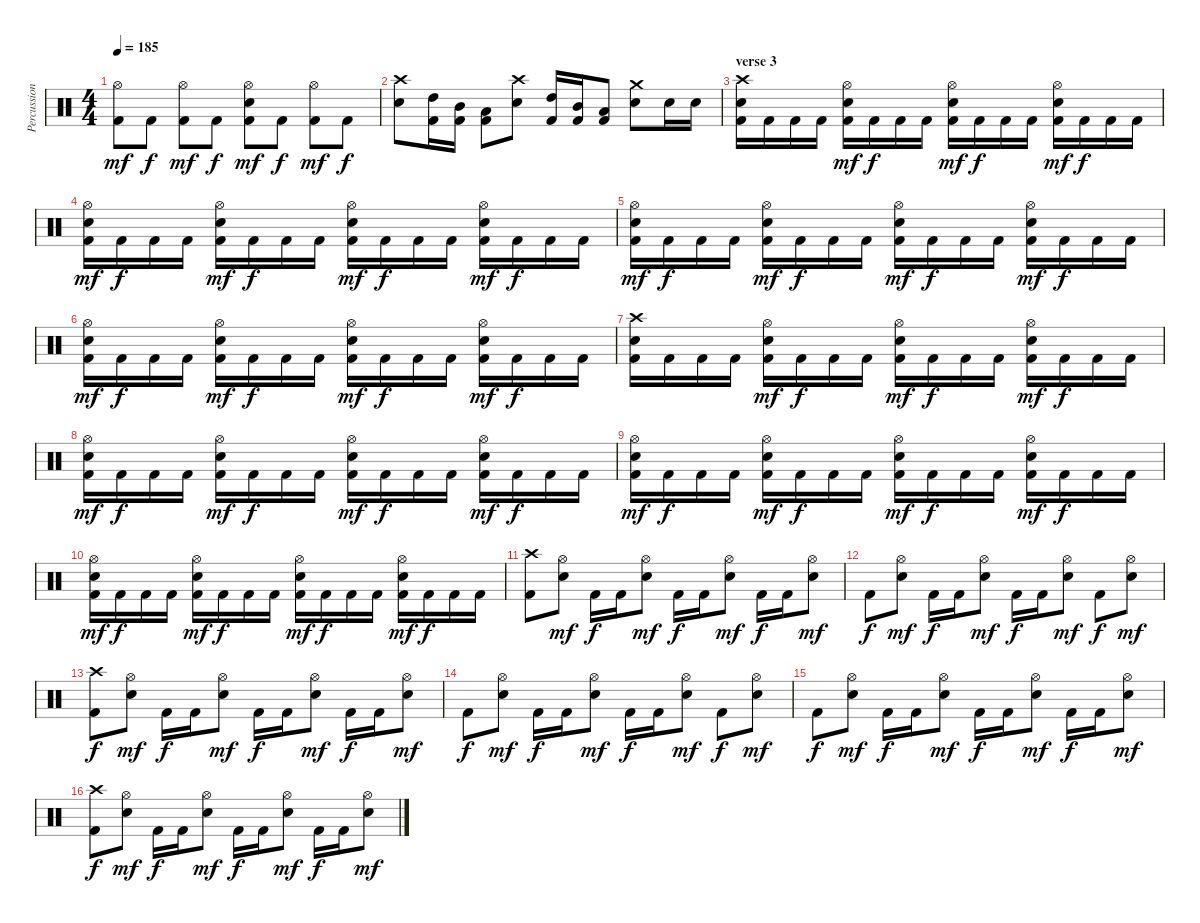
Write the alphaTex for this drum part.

\track ("Percussion" "Percussion") {instrument percussion}
\staff {score}
\articulation defaults
\ts (4 4)
\tempo 185
\clef neutral
\ks c
("Hi-Hat (open)" "Kick (hit) 2").8{dy mf} "Kick (hit) 2".8{dy f} ("Hi-Hat (open)" "Kick (hit) 2").8{dy mf} "Kick (hit) 2".8{dy f} ("Hi-Hat (open)" "Electric Snare (hit)" "Kick (hit) 2").8{dy mf} "Kick (hit) 2".8{dy f} ("Hi-Hat (open)" "Kick (hit) 2").8{dy mf} "Kick (hit) 2".8{dy f} |
("Crash high (hit)" "Electric Snare (hit)").8 ("High Tom (hit)" "Kick (hit) 2").16 ("Mid Tom (hit)" "Kick (hit) 2").16 ("Low Tom (hit)" "Kick (hit) 2").8 ("Crash high (hit)" "Electric Snare (hit)").8 ("High Tom (hit)" "Kick (hit) 2").16 ("Mid Tom (hit)" "Kick (hit) 2").16 ("Low Tom (hit)" "Kick (hit) 2").8 ("Crash medium (hit)" "Electric Snare (hit)").8 "Electric Snare (hit)".16 "Electric Snare (hit)".16 |
\section ("" "verse 3")
("Crash high (hit)" "Electric Snare (hit)" "Kick (hit) 2").16 "Kick (hit) 2".16 "Kick (hit) 2".16 "Kick (hit) 2".16 ("Hi-Hat (open)" "Electric Snare (hit)" "Kick (hit) 2").16{dy mf} "Kick (hit) 2".16{dy f} "Kick (hit) 2".16 "Kick (hit) 2".16 ("Hi-Hat (open)" "Electric Snare (hit)" "Kick (hit) 2").16{dy mf} "Kick (hit) 2".16{dy f} "Kick (hit) 2".16 "Kick (hit) 2".16 ("Hi-Hat (open)" "Electric Snare (hit)" "Kick (hit) 2").16{dy mf} "Kick (hit) 2".16{dy f} "Kick (hit) 2".16 "Kick (hit) 2".16 |
("Hi-Hat (open)" "Electric Snare (hit)" "Kick (hit) 2").16{dy mf} "Kick (hit) 2".16{dy f} "Kick (hit) 2".16 "Kick (hit) 2".16 ("Hi-Hat (open)" "Electric Snare (hit)" "Kick (hit) 2").16{dy mf} "Kick (hit) 2".16{dy f} "Kick (hit) 2".16 "Kick (hit) 2".16 ("Hi-Hat (open)" "Electric Snare (hit)" "Kick (hit) 2").16{dy mf} "Kick (hit) 2".16{dy f} "Kick (hit) 2".16 "Kick (hit) 2".16 ("Hi-Hat (open)" "Electric Snare (hit)" "Kick (hit) 2").16{dy mf} "Kick (hit) 2".16{dy f} "Kick (hit) 2".16 "Kick (hit) 2".16 |
("Hi-Hat (open)" "Electric Snare (hit)" "Kick (hit) 2").16{dy mf} "Kick (hit) 2".16{dy f} "Kick (hit) 2".16 "Kick (hit) 2".16 ("Hi-Hat (open)" "Electric Snare (hit)" "Kick (hit) 2").16{dy mf} "Kick (hit) 2".16{dy f} "Kick (hit) 2".16 "Kick (hit) 2".16 ("Hi-Hat (open)" "Electric Snare (hit)" "Kick (hit) 2").16{dy mf} "Kick (hit) 2".16{dy f} "Kick (hit) 2".16 "Kick (hit) 2".16 ("Hi-Hat (open)" "Electric Snare (hit)" "Kick (hit) 2").16{dy mf} "Kick (hit) 2".16{dy f} "Kick (hit) 2".16 "Kick (hit) 2".16 |
("Hi-Hat (open)" "Electric Snare (hit)" "Kick (hit) 2").16{dy mf} "Kick (hit) 2".16{dy f} "Kick (hit) 2".16 "Kick (hit) 2".16 ("Hi-Hat (open)" "Electric Snare (hit)" "Kick (hit) 2").16{dy mf} "Kick (hit) 2".16{dy f} "Kick (hit) 2".16 "Kick (hit) 2".16 ("Hi-Hat (open)" "Electric Snare (hit)" "Kick (hit) 2").16{dy mf} "Kick (hit) 2".16{dy f} "Kick (hit) 2".16 "Kick (hit) 2".16 ("Hi-Hat (open)" "Electric Snare (hit)" "Kick (hit) 2").16{dy mf} "Kick (hit) 2".16{dy f} "Kick (hit) 2".16 "Kick (hit) 2".16 |
("Crash high (hit)" "Electric Snare (hit)" "Kick (hit) 2").16 "Kick (hit) 2".16 "Kick (hit) 2".16 "Kick (hit) 2".16 ("Hi-Hat (open)" "Electric Snare (hit)" "Kick (hit) 2").16{dy mf} "Kick (hit) 2".16{dy f} "Kick (hit) 2".16 "Kick (hit) 2".16 ("Hi-Hat (open)" "Electric Snare (hit)" "Kick (hit) 2").16{dy mf} "Kick (hit) 2".16{dy f} "Kick (hit) 2".16 "Kick (hit) 2".16 ("Hi-Hat (open)" "Electric Snare (hit)" "Kick (hit) 2").16{dy mf} "Kick (hit) 2".16{dy f} "Kick (hit) 2".16 "Kick (hit) 2".16 |
("Hi-Hat (open)" "Electric Snare (hit)" "Kick (hit) 2").16{dy mf} "Kick (hit) 2".16{dy f} "Kick (hit) 2".16 "Kick (hit) 2".16 ("Hi-Hat (open)" "Electric Snare (hit)" "Kick (hit) 2").16{dy mf} "Kick (hit) 2".16{dy f} "Kick (hit) 2".16 "Kick (hit) 2".16 ("Hi-Hat (open)" "Electric Snare (hit)" "Kick (hit) 2").16{dy mf} "Kick (hit) 2".16{dy f} "Kick (hit) 2".16 "Kick (hit) 2".16 ("Hi-Hat (open)" "Electric Snare (hit)" "Kick (hit) 2").16{dy mf} "Kick (hit) 2".16{dy f} "Kick (hit) 2".16 "Kick (hit) 2".16 |
("Hi-Hat (open)" "Electric Snare (hit)" "Kick (hit) 2").16{dy mf} "Kick (hit) 2".16{dy f} "Kick (hit) 2".16 "Kick (hit) 2".16 ("Hi-Hat (open)" "Electric Snare (hit)" "Kick (hit) 2").16{dy mf} "Kick (hit) 2".16{dy f} "Kick (hit) 2".16 "Kick (hit) 2".16 ("Hi-Hat (open)" "Electric Snare (hit)" "Kick (hit) 2").16{dy mf} "Kick (hit) 2".16{dy f} "Kick (hit) 2".16 "Kick (hit) 2".16 ("Hi-Hat (open)" "Electric Snare (hit)" "Kick (hit) 2").16{dy mf} "Kick (hit) 2".16{dy f} "Kick (hit) 2".16 "Kick (hit) 2".16 |
("Hi-Hat (open)" "Electric Snare (hit)" "Kick (hit) 2").16{dy mf} "Kick (hit) 2".16{dy f} "Kick (hit) 2".16 "Kick (hit) 2".16 ("Hi-Hat (open)" "Electric Snare (hit)" "Kick (hit) 2").16{dy mf} "Kick (hit) 2".16{dy f} "Kick (hit) 2".16 "Kick (hit) 2".16 ("Hi-Hat (open)" "Electric Snare (hit)" "Kick (hit) 2").16{dy mf} "Kick (hit) 2".16{dy f} "Kick (hit) 2".16 "Kick (hit) 2".16 ("Hi-Hat (open)" "Electric Snare (hit)" "Kick (hit) 2").16{dy mf} "Kick (hit) 2".16{dy f} "Kick (hit) 2".16 "Kick (hit) 2".16 |
\section ("" "")
("Crash high (hit)" "Kick (hit) 2").8 ("Hi-Hat (open)" "Electric Snare (hit)").8{dy mf} "Kick (hit) 2".16{dy f} "Kick (hit) 2".16 ("Hi-Hat (open)" "Electric Snare (hit)").8{dy mf} "Kick (hit) 2".16{dy f} "Kick (hit) 2".16 ("Hi-Hat (open)" "Electric Snare (hit)").8{dy mf} "Kick (hit) 2".16{dy f} "Kick (hit) 2".16 ("Hi-Hat (open)" "Electric Snare (hit)").8{dy mf} |
"Kick (hit) 2".8{dy f} ("Hi-Hat (open)" "Electric Snare (hit)").8{dy mf} "Kick (hit) 2".16{dy f} "Kick (hit) 2".16 ("Hi-Hat (open)" "Electric Snare (hit)").8{dy mf} "Kick (hit) 2".16{dy f} "Kick (hit) 2".16 ("Hi-Hat (open)" "Electric Snare (hit)").8{dy mf} "Kick (hit) 2".8{dy f} ("Hi-Hat (open)" "Electric Snare (hit)").8{dy mf} |
("Crash high (hit)" "Kick (hit) 2").8{dy f} ("Hi-Hat (open)" "Electric Snare (hit)").8{dy mf} "Kick (hit) 2".16{dy f} "Kick (hit) 2".16 ("Hi-Hat (open)" "Electric Snare (hit)").8{dy mf} "Kick (hit) 2".16{dy f} "Kick (hit) 2".16 ("Hi-Hat (open)" "Electric Snare (hit)").8{dy mf} "Kick (hit) 2".16{dy f} "Kick (hit) 2".16 ("Hi-Hat (open)" "Electric Snare (hit)").8{dy mf} |
"Kick (hit) 2".8{dy f} ("Hi-Hat (open)" "Electric Snare (hit)").8{dy mf} "Kick (hit) 2".16{dy f} "Kick (hit) 2".16 ("Hi-Hat (open)" "Electric Snare (hit)").8{dy mf} "Kick (hit) 2".16{dy f} "Kick (hit) 2".16 ("Hi-Hat (open)" "Electric Snare (hit)").8{dy mf} "Kick (hit) 2".8{dy f} ("Hi-Hat (open)" "Electric Snare (hit)").8{dy mf} |
"Kick (hit) 2".8{dy f} ("Hi-Hat (open)" "Electric Snare (hit)").8{dy mf} "Kick (hit) 2".16{dy f} "Kick (hit) 2".16 ("Hi-Hat (open)" "Electric Snare (hit)").8{dy mf} "Kick (hit) 2".16{dy f} "Kick (hit) 2".16 ("Hi-Hat (open)" "Electric Snare (hit)").8{dy mf} "Kick (hit) 2".16{dy f} "Kick (hit) 2".16 ("Hi-Hat (open)" "Electric Snare (hit)").8{dy mf} |
("Crash high (hit)" "Kick (hit) 2").8{dy f} ("Hi-Hat (open)" "Electric Snare (hit)").8{dy mf} "Kick (hit) 2".16{dy f} "Kick (hit) 2".16 ("Hi-Hat (open)" "Electric Snare (hit)").8{dy mf} "Kick (hit) 2".16{dy f} "Kick (hit) 2".16 ("Hi-Hat (open)" "Electric Snare (hit)").8{dy mf} "Kick (hit) 2".16{dy f} "Kick (hit) 2".16 ("Hi-Hat (open)" "Electric Snare (hit)").8{dy mf}
